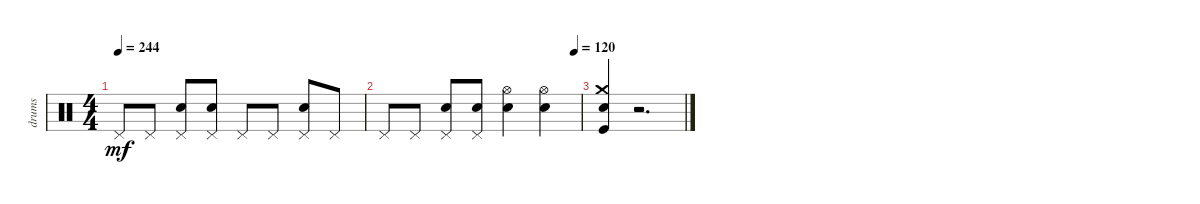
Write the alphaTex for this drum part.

\track ("drums" "drums") {instrument percussion}
\staff {score}
\articulation defaults
\ts (4 4)
\tempo 244
\clef neutral
\ks c "Pedal Hi-Hat (hit)".8{dy mf} "Pedal Hi-Hat (hit)".8
("Pedal Hi-Hat (hit)" "Snare (hit) 2").8 ("Pedal Hi-Hat (hit)" "Snare (hit) 2").8 "Pedal Hi-Hat (hit)".8 "Pedal Hi-Hat (hit)".8 ("Pedal Hi-Hat (hit)" "Snare (hit) 2").8 "Pedal Hi-Hat (hit)".8 |
\tempo (120 0.96875)
"Pedal Hi-Hat (hit)".8 "Pedal Hi-Hat (hit)".8 ("Pedal Hi-Hat (hit)" "Snare (hit) 2").8 ("Pedal Hi-Hat (hit)" "Snare (hit) 2").8 ("Hi-Hat (open)" "Snare (hit) 2").4 ("Hi-Hat (open)" "Snare (hit) 2").4 |
("Crash medium (hit)" "Kick (hit)" "Snare (hit) 2").4 r.2{d}
